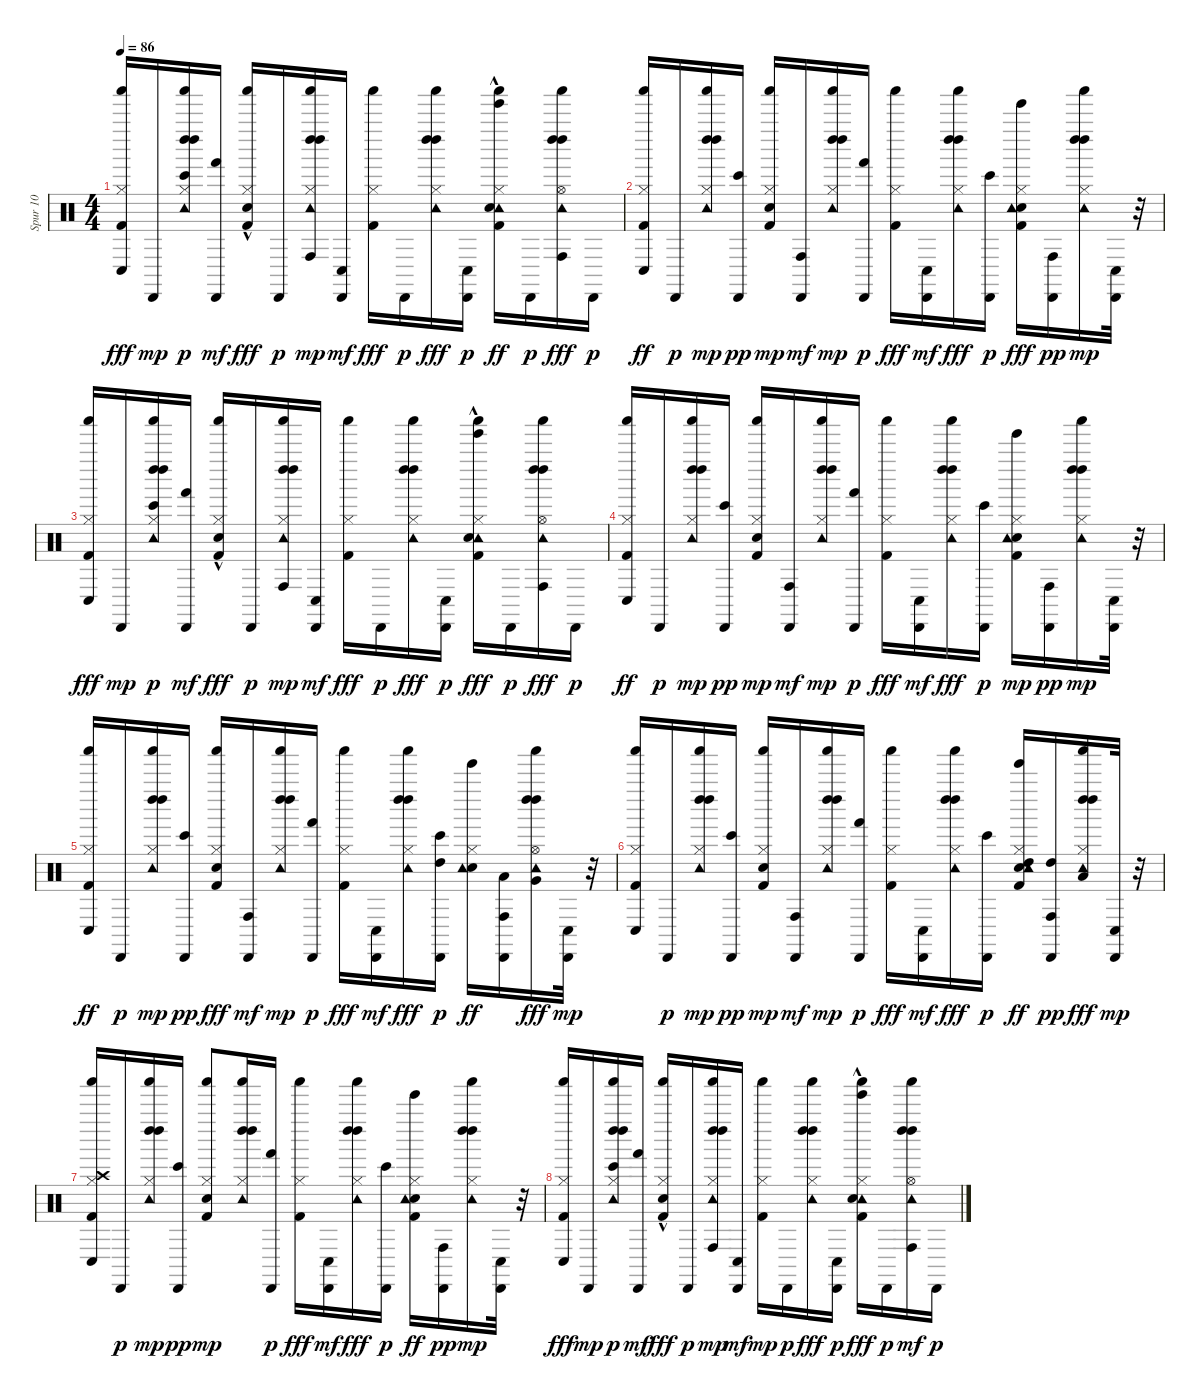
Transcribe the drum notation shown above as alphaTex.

\track ("Spur 10" "Spur 10") {instrument percussion}
\staff {score}
\articulation defaults
\ts (4 4)
\tempo 86
\clef neutral
\ks c
("Hi-Hat (closed)" "Kick (hit) 2" "Shaker (hit)" "Conga low (hit)").16{dy fff} "Cabasa (hit)".16{dy mp} ("Hi-Hat (closed)" "Shaker (hit)" "Bongo High (hit)" "Tambourine (hit)" "Left Maraca (hit)" "Left Maraca (hit)").16{dy p} ("Cabasa (hit)" "Hand (hit)").16{dy mf} ("Hi-Hat (closed)" "Snare (hit) 2"{hac} "Shaker (hit)" "Kick (hit) 2").16{dy fff} "Cabasa (hit)".16{dy p} ("Conga high (hit)" "Shaker (hit)" "Hi-Hat (closed)" "Tambourine (hit)" "Left Maraca (hit)" "Left Maraca (hit)").16{dy mp} ("Cabasa (hit)" "Conga low (hit)").16{dy mf} ("Hi-Hat (closed)" "Shaker (hit)" "Kick (hit) 2").16{dy fff} "Cabasa (hit)".16{dy p} ("Shaker (hit)" "Hi-Hat (closed)" "Tambourine (hit)" "Left Maraca (hit)" "Left Maraca (hit)").16{dy fff} ("Cabasa (hit)" "Conga low (hit)").16{dy p} ("Hi-Hat (closed)" "Tambourine (hit)"{hac} "Shaker (hit)" "Kick (hit) 2" "Snare (hit) 2"{hac} "Tinkle Bell (hit)"{hac}).16{dy ff} "Cabasa (hit)".16{dy p} ("Hi-Hat (open)" "Shaker (hit)" "Conga high (hit)" "Tambourine (hit)" "Left Maraca (hit)" "Left Maraca (hit)").16{dy fff} "Cabasa (hit)".16{dy p} |
("Hi-Hat (closed)" "Shaker (hit)" "Kick (hit) 2" "Conga low (hit)").16{dy ff} "Cabasa (hit)".16{dy p} ("Shaker (hit)" "Hi-Hat (closed)" "Left Maraca (hit)" "Tambourine (hit)" "Left Maraca (hit)").16{dy mp} ("Bongo High (hit)" "Cabasa (hit)").16{dy pp} ("Shaker (hit)" "Kick (hit) 2" "Snare (hit) 2" "Hi-Hat (closed)").16{dy mp} ("Cabasa (hit)" "Conga high (hit)").16{dy mf} ("Shaker (hit)" "Hi-Hat (closed)" "Left Maraca (hit)" "Tambourine (hit)" "Left Maraca (hit)").16{dy mp} ("Hand (hit)" "Cabasa (hit)").16{dy p} ("Hi-Hat (closed)" "Shaker (hit)" "Kick (hit) 2").16{dy fff} ("Cabasa (hit)" "Conga low (hit)").16{dy mf} ("Hi-Hat (closed)" "Shaker (hit)" "Left Maraca (hit)" "Tambourine (hit)" "Left Maraca (hit)").16{dy fff} ("Bongo High (hit)" "Cabasa (hit)").16{dy p} ("Hi-Hat (closed)" "Tinkle Bell (hit)" "Kick (hit) 2" "Snare (hit) 2" "Tambourine (hit)").16{dy fff} ("Conga high (hit)" "Cabasa (hit)").16{dy pp} ("Hi-Hat (closed)" "Shaker (hit)" "Left Maraca (hit)" "Tambourine (hit)" "Left Maraca (hit)").16{dy mp} ("Conga low (hit)" "Cabasa (hit)").32 r.32 |
("Hi-Hat (closed)" "Kick (hit) 2" "Shaker (hit)" "Conga low (hit)").16{dy fff} "Cabasa (hit)".16{dy mp} ("Hi-Hat (closed)" "Shaker (hit)" "Bongo High (hit)" "Left Maraca (hit)" "Tambourine (hit)" "Left Maraca (hit)").16{dy p} ("Cabasa (hit)" "Hand (hit)").16{dy mf} ("Hi-Hat (closed)" "Snare (hit) 2"{hac} "Shaker (hit)" "Kick (hit) 2").16{dy fff} "Cabasa (hit)".16{dy p} ("Hi-Hat (closed)" "Conga high (hit)" "Shaker (hit)" "Left Maraca (hit)" "Tambourine (hit)" "Left Maraca (hit)").16{dy mp} ("Cabasa (hit)" "Conga low (hit)").16{dy mf} ("Hi-Hat (closed)" "Shaker (hit)" "Kick (hit) 2").16{dy fff} "Cabasa (hit)".16{dy p} ("Hi-Hat (closed)" "Shaker (hit)" "Left Maraca (hit)" "Tambourine (hit)" "Left Maraca (hit)").16{dy fff} ("Cabasa (hit)" "Conga low (hit)").16{dy p} ("Hi-Hat (closed)" "Tinkle Bell (hit)"{hac} "Tambourine (hit)"{hac} "Shaker (hit)" "Kick (hit) 2" "Snare (hit) 2"{hac}).16{dy fff} "Cabasa (hit)".16{dy p} ("Hi-Hat (open)" "Shaker (hit)" "Conga high (hit)" "Left Maraca (hit)" "Tambourine (hit)" "Left Maraca (hit)").16{dy fff} "Cabasa (hit)".16{dy p} |
("Hi-Hat (closed)" "Shaker (hit)" "Kick (hit) 2" "Conga low (hit)").16{dy ff} "Cabasa (hit)".16{dy p} ("Shaker (hit)" "Hi-Hat (closed)" "Left Maraca (hit)" "Tambourine (hit)" "Left Maraca (hit)").16{dy mp} ("Bongo High (hit)" "Cabasa (hit)").16{dy pp} ("Shaker (hit)" "Kick (hit) 2" "Snare (hit) 2" "Hi-Hat (closed)").16{dy mp} ("Cabasa (hit)" "Conga high (hit)").16{dy mf} ("Shaker (hit)" "Hi-Hat (closed)" "Left Maraca (hit)" "Tambourine (hit)" "Left Maraca (hit)").16{dy mp} ("Hand (hit)" "Cabasa (hit)").16{dy p} ("Hi-Hat (closed)" "Shaker (hit)" "Kick (hit) 2").16{dy fff} ("Cabasa (hit)" "Conga low (hit)").16{dy mf} ("Shaker (hit)" "Hi-Hat (closed)" "Left Maraca (hit)" "Tambourine (hit)" "Left Maraca (hit)").16{dy fff} ("Bongo High (hit)" "Cabasa (hit)").16{dy p} ("Snare (hit) 2" "Kick (hit) 2" "Tambourine (hit)" "Tinkle Bell (hit)" "Hi-Hat (closed)").16{dy mp} ("Conga high (hit)" "Cabasa (hit)").16{dy pp} ("Shaker (hit)" "Hi-Hat (closed)" "Left Maraca (hit)" "Tambourine (hit)" "Left Maraca (hit)").16{dy mp} ("Conga low (hit)" "Cabasa (hit)").32 r.32 |
("Hi-Hat (closed)" "Shaker (hit)" "Kick (hit) 2" "Conga low (hit)").16{dy ff} "Cabasa (hit)".16{dy p} ("Hi-Hat (closed)" "Shaker (hit)" "Tambourine (hit)" "Left Maraca (hit)" "Left Maraca (hit)").16{dy mp} ("Bongo High (hit)" "Cabasa (hit)").16{dy pp} ("Hi-Hat (closed)" "Shaker (hit)" "Kick (hit) 2" "Snare (hit) 2").16{dy fff} ("Cabasa (hit)" "Conga high (hit)").16{dy mf} ("Shaker (hit)" "Hi-Hat (closed)" "Tambourine (hit)" "Left Maraca (hit)" "Left Maraca (hit)").16{dy mp} ("Hand (hit)" "Cabasa (hit)").16{dy p} ("Hi-Hat (closed)" "Shaker (hit)" "Kick (hit) 2").16{dy fff} ("Cabasa (hit)" "Conga low (hit)").16{dy mf} ("Shaker (hit)" "Hi-Hat (closed)" "Tambourine (hit)" "Left Maraca (hit)" "Left Maraca (hit)").16{dy fff} ("High Tom (hit)" "Bongo High (hit)" "Cabasa (hit)").16{dy p} ("Snare (hit) 2" "Tambourine (hit)" "Tinkle Bell (hit)" "Hi-Hat (closed)").16{dy ff} ("Conga high (hit)" "Cabasa (hit)" "Low Tom (hit)").16 ("Hi-Hat (open)" "Shaker (hit)" "Very Low Tom (hit)" "Tambourine (hit)" "Left Maraca (hit)" "Left Maraca (hit)").16{dy fff} ("Conga low (hit)" "Cabasa (hit)").32{dy mp} r.32 |
("Shaker (hit)" "Kick (hit) 2" "Conga low (hit)" "Hi-Hat (closed)").16 "Cabasa (hit)".16{dy p} ("Hi-Hat (closed)" "Shaker (hit)" "Left Maraca (hit)" "Tambourine (hit)" "Left Maraca (hit)").16{dy mp} ("Bongo High (hit)" "Cabasa (hit)").16{dy pp} ("Shaker (hit)" "Kick (hit) 2" "Snare (hit) 2" "Hi-Hat (closed)").16{dy mp} ("Cabasa (hit)" "Conga high (hit)").16{dy mf} ("Shaker (hit)" "Hi-Hat (closed)" "Left Maraca (hit)" "Tambourine (hit)" "Left Maraca (hit)").16{dy mp} ("Hand (hit)" "Cabasa (hit)").16{dy p} ("Hi-Hat (closed)" "Shaker (hit)" "Kick (hit) 2").16{dy fff} ("Cabasa (hit)" "Conga low (hit)").16{dy mf} ("Shaker (hit)" "Hi-Hat (closed)" "Left Maraca (hit)" "Tambourine (hit)" "Left Maraca (hit)").16{dy fff} ("Bongo High (hit)" "Cabasa (hit)").16{dy p} ("High Tom (hit)" "Hi-Hat (closed)" "Snare (hit) 2" "Kick (hit) 2" "Tambourine (hit)" "Tinkle Bell (hit)").16{dy ff} ("High Tom (hit)" "Conga high (hit)" "Cabasa (hit)").16{dy pp} ("Shaker (hit)" "Hi-Hat (closed)" "Left Maraca (hit)" "Tambourine (hit)" "Left Maraca (hit)" "Low Tom (hit)").16{dy fff} ("Conga low (hit)" "Cabasa (hit)").32{dy mp} r.32 |
("Shaker (hit)" "Kick (hit) 2" "Conga low (hit)" "Crash high (hit)" "Hi-Hat (closed)").16 "Cabasa (hit)".16{dy p} ("Hi-Hat (closed)" "Shaker (hit)" "Tambourine (hit)" "Left Maraca (hit)" "Left Maraca (hit)").16{dy mp} ("Bongo High (hit)" "Cabasa (hit)").16{dy pp} ("Shaker (hit)" "Kick (hit) 2" "Snare (hit) 2" "Hi-Hat (closed)").8{dy mp} ("Shaker (hit)" "Hi-Hat (closed)" "Tambourine (hit)" "Left Maraca (hit)" "Left Maraca (hit)").16 ("Hand (hit)" "Cabasa (hit)").16{dy p} ("Hi-Hat (closed)" "Shaker (hit)" "Kick (hit) 2").16{dy fff} ("Cabasa (hit)" "Conga low (hit)").16{dy mf} ("Shaker (hit)" "Hi-Hat (closed)" "Tambourine (hit)" "Left Maraca (hit)" "Left Maraca (hit)").16{dy fff} ("Bongo High (hit)" "Cabasa (hit)").16{dy p} ("Hi-Hat (closed)" "Snare (hit) 2" "Kick (hit) 2" "Tambourine (hit)" "Tinkle Bell (hit)").16{dy ff} ("Conga high (hit)" "Cabasa (hit)").16{dy pp} ("Shaker (hit)" "Hi-Hat (closed)" "Tambourine (hit)" "Left Maraca (hit)" "Left Maraca (hit)").16{dy mp} ("Conga low (hit)" "Cabasa (hit)").32 r.32 |
("Hi-Hat (closed)" "Kick (hit) 2" "Shaker (hit)" "Conga low (hit)").16{dy fff} "Cabasa (hit)".16{dy mp} ("Hi-Hat (closed)" "Shaker (hit)" "Bongo High (hit)" "Left Maraca (hit)" "Tambourine (hit)" "Left Maraca (hit)").16{dy p} ("Cabasa (hit)" "Hand (hit)").16{dy mf} ("Hi-Hat (closed)" "Snare (hit) 2"{hac} "Shaker (hit)" "Kick (hit) 2").16{dy fff} "Cabasa (hit)".16{dy p} ("Conga high (hit)" "Shaker (hit)" "Hi-Hat (closed)" "Left Maraca (hit)" "Tambourine (hit)" "Left Maraca (hit)").16{dy mp} ("Cabasa (hit)" "Conga low (hit)").16{dy mf} ("Shaker (hit)" "Kick (hit) 2" "Hi-Hat (closed)").16{dy mp} "Cabasa (hit)".16{dy p} ("Shaker (hit)" "Hi-Hat (closed)" "Left Maraca (hit)" "Tambourine (hit)" "Left Maraca (hit)").16{dy fff} ("Cabasa (hit)" "Conga low (hit)").16{dy p} ("Tinkle Bell (hit)" "Tambourine (hit)"{hac} "Shaker (hit)" "Kick (hit) 2" "Snare (hit) 2"{hac} "Hi-Hat (closed)").16{dy fff} "Cabasa (hit)".16{dy p} ("Shaker (hit)" "Conga high (hit)" "Hi-Hat (open)" "Left Maraca (hit)" "Tambourine (hit)" "Left Maraca (hit)").16{dy mf} "Cabasa (hit)".16{dy p}
